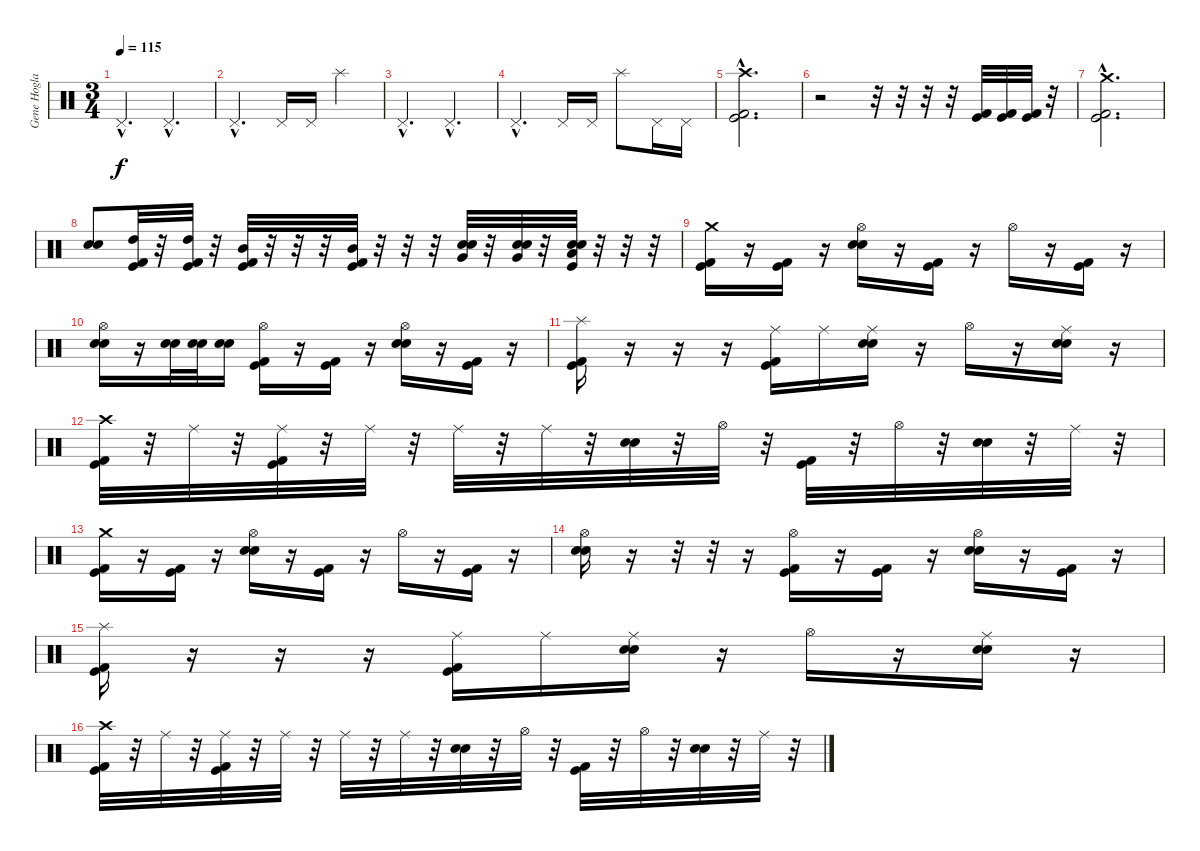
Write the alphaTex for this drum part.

\track ("Gene Hoglan" "Gene Hogla") {instrument percussion}
\staff {score}
\articulation defaults
\ts (3 4)
\tempo 115
\clef neutral
\ks c "Pedal Hi-Hat (hit)"{hac}.4{d dy f} "Pedal Hi-Hat (hit)"{hac}.4{d}
|
"Pedal Hi-Hat (hit)"{hac}.4{d} "Pedal Hi-Hat (hit)".16 "Pedal Hi-Hat (hit)".16 "Splash (hit)".4 |
"Pedal Hi-Hat (hit)"{hac}.4{d} "Pedal Hi-Hat (hit)"{hac}.4{d} |
"Pedal Hi-Hat (hit)"{hac}.4{d} "Pedal Hi-Hat (hit)".16 "Pedal Hi-Hat (hit)".16 "Splash (hit)".8 "Pedal Hi-Hat (hit)".16 "Pedal Hi-Hat (hit)".16 |
("Crash high (hit)"{hac} "Kick (hit) 2"{hac} "Kick (hit)"{hac}).2{d} |
r.2 r.32 r.32 r.32 r.32 ("Kick (hit) 2" "Kick (hit)").32 ("Kick (hit) 2" "Kick (hit)").32 ("Kick (hit) 2" "Kick (hit)").32 r.32 |
("Crash medium (hit)"{hac} "Kick (hit) 2"{hac} "Kick (hit)"{hac}).2{d} |
("Electric Snare (hit)" "Snare (hit) 2").8 ("High Tom (hit)" "Kick (hit) 2" "Kick (hit)").32 r.32 ("High Tom (hit)" "Kick (hit)" "Kick (hit) 2").32 r.32 ("Mid Tom (hit)" "Kick (hit) 2" "Kick (hit)").32 r.32 r.32 r.32 ("Mid Tom (hit)" "Kick (hit) 2" "Kick (hit)").32 r.32 r.32 r.32 ("Very Low Tom (hit)" "Electric Snare (hit)" "Snare (hit) 2").32 r.32 ("Very Low Tom (hit)" "Electric Snare (hit)" "Snare (hit) 2").32 r.32 ("Low Floor Tom (hit)" "Electric Snare (hit)" "Snare (hit) 2" "Kick (hit)").32 r.32 r.32 r.32 |
("Crash medium (hit)" "Kick (hit) 2" "Kick (hit)").16 r.16 ("Kick (hit) 2" "Kick (hit)").16 r.16 ("Hi-Hat (open)" "Snare (hit) 2" "Electric Snare (hit)").16 r.16 ("Kick (hit) 2" "Kick (hit)").16 r.16 "Hi-Hat (open)".16 r.16 ("Kick (hit) 2" "Kick (hit)").16 r.16 |
("Hi-Hat (open)" "Snare (hit) 2" "Electric Snare (hit)").16 r.16 ("Electric Snare (hit)" "Snare (hit) 2").32 ("Electric Snare (hit)" "Snare (hit) 2").32 ("Electric Snare (hit)" "Snare (hit) 2").16 ("Hi-Hat (open)" "Kick (hit)" "Kick (hit) 2").16 r.16 ("Kick (hit)" "Kick (hit) 2").16 r.16 ("Hi-Hat (open)" "Snare (hit) 2" "Electric Snare (hit)").16 r.16 ("Kick (hit) 2" "Kick (hit)").16 r.16 |
("Splash (hit)" "Kick (hit) 2" "Kick (hit)").16 r.16 r.16 r.16 ("Ride (middle)" "Kick (hit)" "Kick (hit) 2").16 "Ride (middle)".16 ("Ride (middle)" "Snare (hit) 2" "Electric Snare (hit)").16 r.16 "Hi-Hat (open)".16 r.16 ("Ride (middle)" "Electric Snare (hit)" "Snare (hit) 2").16 r.16 |
("Crash high (hit)" "Kick (hit) 2" "Kick (hit)").32 r.32 "Ride (middle)".32 r.32 ("Ride (middle)" "Kick (hit)" "Kick (hit) 2").32 r.32 "Ride (middle)".32 r.32 "Ride (middle)".32 r.32 "Ride (middle)".32 r.32 ("Snare (hit) 2" "Electric Snare (hit)").32 r.32 "Hi-Hat (open)".32 r.32 ("Kick (hit) 2" "Kick (hit)").32 r.32 "Hi-Hat (open)".32 r.32 ("Snare (hit) 2" "Electric Snare (hit)").32 r.32 "Ride (middle)".32 r.32 |
("Crash medium (hit)" "Kick (hit) 2" "Kick (hit)").16 r.16 ("Kick (hit) 2" "Kick (hit)").16 r.16 ("Hi-Hat (open)" "Snare (hit) 2" "Electric Snare (hit)").16 r.16 ("Kick (hit) 2" "Kick (hit)").16 r.16 "Hi-Hat (open)".16 r.16 ("Kick (hit) 2" "Kick (hit)").16 r.16 |
("Hi-Hat (open)" "Snare (hit) 2" "Electric Snare (hit)").16 r.16 r.32 r.32 r.16 ("Hi-Hat (open)" "Kick (hit)" "Kick (hit) 2").16 r.16 ("Kick (hit)" "Kick (hit) 2").16 r.16 ("Hi-Hat (open)" "Snare (hit) 2" "Electric Snare (hit)").16 r.16 ("Kick (hit) 2" "Kick (hit)").16 r.16 |
("Splash (hit)" "Kick (hit) 2" "Kick (hit)").16 r.16 r.16 r.16 ("Ride (middle)" "Kick (hit)" "Kick (hit) 2").16 "Ride (middle)".16 ("Ride (middle)" "Snare (hit) 2" "Electric Snare (hit)").16 r.16 "Hi-Hat (open)".16 r.16 ("Ride (middle)" "Electric Snare (hit)" "Snare (hit) 2").16 r.16 |
("Crash high (hit)" "Kick (hit) 2" "Kick (hit)").32 r.32 "Ride (middle)".32 r.32 ("Ride (middle)" "Kick (hit)" "Kick (hit) 2").32 r.32 "Ride (middle)".32 r.32 "Ride (middle)".32 r.32 "Ride (middle)".32 r.32 ("Snare (hit) 2" "Electric Snare (hit)").32 r.32 "Hi-Hat (open)".32 r.32 ("Kick (hit) 2" "Kick (hit)").32 r.32 "Hi-Hat (open)".32 r.32 ("Snare (hit) 2" "Electric Snare (hit)").32 r.32 "Ride (middle)".32 r.32
